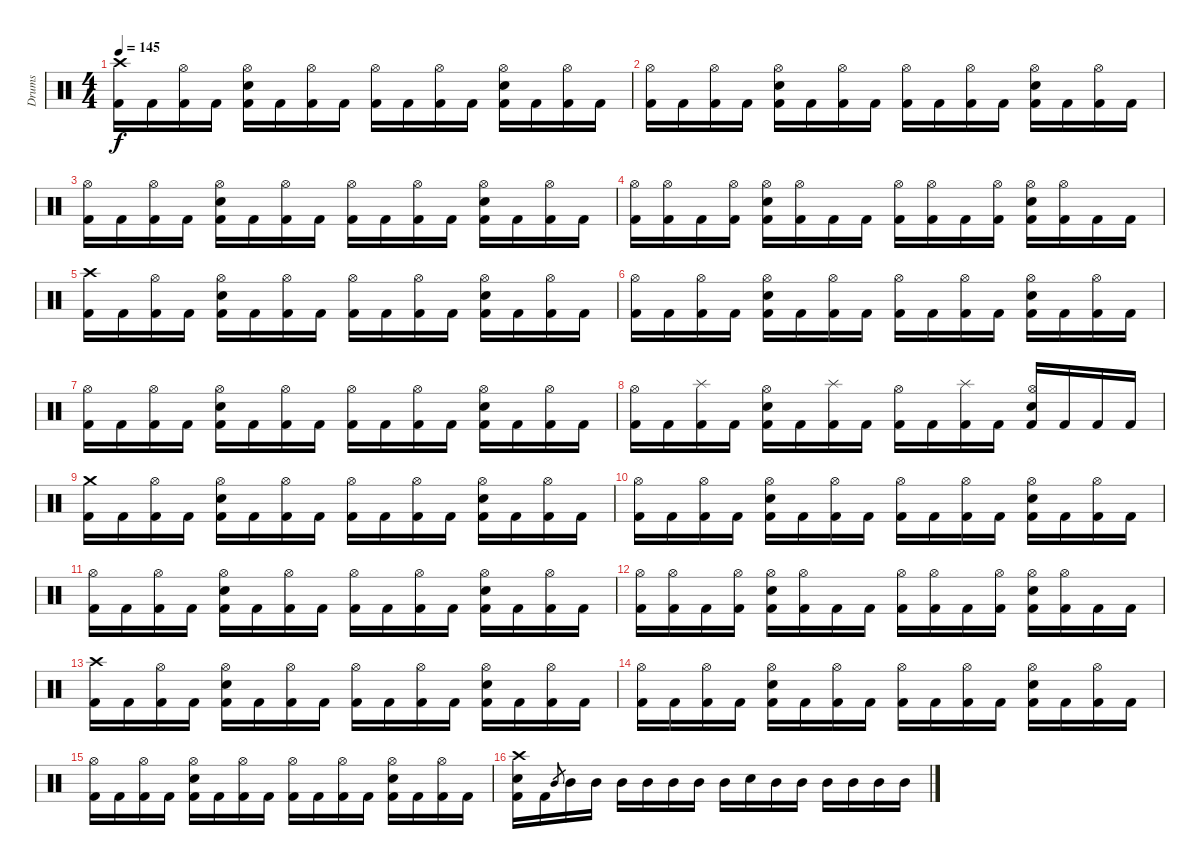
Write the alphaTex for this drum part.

\track ("Drums" "Drums") {instrument percussion}
\staff {score}
\articulation defaults
\ts (4 4)
\tempo 145
\clef neutral
\ks c
("Crash high (hit)" "Kick (hit) 2").16{dy f} "Kick (hit) 2".16 ("Hi-Hat (open)" "Kick (hit) 2").16 "Kick (hit) 2".16 ("Hi-Hat (open)" "Electric Snare (hit)" "Kick (hit) 2").16 "Kick (hit) 2".16 ("Hi-Hat (open)" "Kick (hit) 2").16 "Kick (hit) 2".16 ("Hi-Hat (open)" "Kick (hit) 2").16 "Kick (hit) 2".16 ("Hi-Hat (open)" "Kick (hit) 2").16 "Kick (hit) 2".16 ("Hi-Hat (open)" "Electric Snare (hit)" "Kick (hit) 2").16 "Kick (hit) 2".16 ("Hi-Hat (open)" "Kick (hit) 2").16 "Kick (hit) 2".16 |
("Hi-Hat (open)" "Kick (hit) 2").16 "Kick (hit) 2".16 ("Hi-Hat (open)" "Kick (hit) 2").16 "Kick (hit) 2".16 ("Hi-Hat (open)" "Electric Snare (hit)" "Kick (hit) 2").16 "Kick (hit) 2".16 ("Hi-Hat (open)" "Kick (hit) 2").16 "Kick (hit) 2".16 ("Hi-Hat (open)" "Kick (hit) 2").16 "Kick (hit) 2".16 ("Hi-Hat (open)" "Kick (hit) 2").16 "Kick (hit) 2".16 ("Hi-Hat (open)" "Electric Snare (hit)" "Kick (hit) 2").16 "Kick (hit) 2".16 ("Hi-Hat (open)" "Kick (hit) 2").16 "Kick (hit) 2".16 |
("Hi-Hat (open)" "Kick (hit) 2").16 "Kick (hit) 2".16 ("Hi-Hat (open)" "Kick (hit) 2").16 "Kick (hit) 2".16 ("Hi-Hat (open)" "Electric Snare (hit)" "Kick (hit) 2").16 "Kick (hit) 2".16 ("Hi-Hat (open)" "Kick (hit) 2").16 "Kick (hit) 2".16 ("Hi-Hat (open)" "Kick (hit) 2").16 "Kick (hit) 2".16 ("Hi-Hat (open)" "Kick (hit) 2").16 "Kick (hit) 2".16 ("Hi-Hat (open)" "Electric Snare (hit)" "Kick (hit) 2").16 "Kick (hit) 2".16 ("Hi-Hat (open)" "Kick (hit) 2").16 "Kick (hit) 2".16 |
("Hi-Hat (open)" "Kick (hit) 2").16 ("Hi-Hat (open)" "Kick (hit) 2").16 "Kick (hit) 2".16 ("Hi-Hat (open)" "Kick (hit) 2").16 ("Hi-Hat (open)" "Electric Snare (hit)" "Kick (hit) 2").16 ("Hi-Hat (open)" "Kick (hit) 2").16 "Kick (hit) 2".16 "Kick (hit) 2".16 ("Hi-Hat (open)" "Kick (hit) 2").16 ("Hi-Hat (open)" "Kick (hit) 2").16 "Kick (hit) 2".16 ("Hi-Hat (open)" "Kick (hit) 2").16 ("Hi-Hat (open)" "Electric Snare (hit)" "Kick (hit) 2").16 ("Hi-Hat (open)" "Kick (hit) 2").16 "Kick (hit) 2".16 "Kick (hit) 2".16 |
("Crash high (hit)" "Kick (hit) 2").16 "Kick (hit) 2".16 ("Hi-Hat (open)" "Kick (hit) 2").16 "Kick (hit) 2".16 ("Hi-Hat (open)" "Electric Snare (hit)" "Kick (hit) 2").16 "Kick (hit) 2".16 ("Hi-Hat (open)" "Kick (hit) 2").16 "Kick (hit) 2".16 ("Hi-Hat (open)" "Kick (hit) 2").16 "Kick (hit) 2".16 ("Hi-Hat (open)" "Kick (hit) 2").16 "Kick (hit) 2".16 ("Hi-Hat (open)" "Electric Snare (hit)" "Kick (hit) 2").16 "Kick (hit) 2".16 ("Hi-Hat (open)" "Kick (hit) 2").16 "Kick (hit) 2".16 |
("Hi-Hat (open)" "Kick (hit) 2").16 "Kick (hit) 2".16 ("Hi-Hat (open)" "Kick (hit) 2").16 "Kick (hit) 2".16 ("Hi-Hat (open)" "Electric Snare (hit)" "Kick (hit) 2").16 "Kick (hit) 2".16 ("Hi-Hat (open)" "Kick (hit) 2").16 "Kick (hit) 2".16 ("Hi-Hat (open)" "Kick (hit) 2").16 "Kick (hit) 2".16 ("Hi-Hat (open)" "Kick (hit) 2").16 "Kick (hit) 2".16 ("Hi-Hat (open)" "Electric Snare (hit)" "Kick (hit) 2").16 "Kick (hit) 2".16 ("Hi-Hat (open)" "Kick (hit) 2").16 "Kick (hit) 2".16 |
("Hi-Hat (open)" "Kick (hit) 2").16 "Kick (hit) 2".16 ("Hi-Hat (open)" "Kick (hit) 2").16 "Kick (hit) 2".16 ("Hi-Hat (open)" "Electric Snare (hit)" "Kick (hit) 2").16 "Kick (hit) 2".16 ("Hi-Hat (open)" "Kick (hit) 2").16 "Kick (hit) 2".16 ("Hi-Hat (open)" "Kick (hit) 2").16 "Kick (hit) 2".16 ("Hi-Hat (open)" "Kick (hit) 2").16 "Kick (hit) 2".16 ("Hi-Hat (open)" "Electric Snare (hit)" "Kick (hit) 2").16 "Kick (hit) 2".16 ("Hi-Hat (open)" "Kick (hit) 2").16 "Kick (hit) 2".16 |
("Hi-Hat (open)" "Kick (hit) 2").16 "Kick (hit) 2".16 ("Splash (hit)" "Kick (hit) 2").16 "Kick (hit) 2".16 ("Hi-Hat (open)" "Electric Snare (hit)" "Kick (hit) 2").16 "Kick (hit) 2".16 ("Splash (hit)" "Kick (hit) 2").16 "Kick (hit) 2".16 ("Hi-Hat (open)" "Kick (hit) 2").16 "Kick (hit) 2".16 ("Splash (hit)" "Kick (hit) 2").16 "Kick (hit) 2".16 ("Hi-Hat (open)" "Electric Snare (hit)" "Kick (hit) 2").16 "Kick (hit) 2".16 "Kick (hit) 2".16 "Kick (hit) 2".16 |
("Crash medium (hit)" "Kick (hit) 2").16 "Kick (hit) 2".16 ("Hi-Hat (open)" "Kick (hit) 2").16 "Kick (hit) 2".16 ("Hi-Hat (open)" "Electric Snare (hit)" "Kick (hit) 2").16 "Kick (hit) 2".16 ("Hi-Hat (open)" "Kick (hit) 2").16 "Kick (hit) 2".16 ("Hi-Hat (open)" "Kick (hit) 2").16 "Kick (hit) 2".16 ("Hi-Hat (open)" "Kick (hit) 2").16 "Kick (hit) 2".16 ("Hi-Hat (open)" "Electric Snare (hit)" "Kick (hit) 2").16 "Kick (hit) 2".16 ("Hi-Hat (open)" "Kick (hit) 2").16 "Kick (hit) 2".16 |
("Hi-Hat (open)" "Kick (hit) 2").16 "Kick (hit) 2".16 ("Hi-Hat (open)" "Kick (hit) 2").16 "Kick (hit) 2".16 ("Hi-Hat (open)" "Electric Snare (hit)" "Kick (hit) 2").16 "Kick (hit) 2".16 ("Hi-Hat (open)" "Kick (hit) 2").16 "Kick (hit) 2".16 ("Hi-Hat (open)" "Kick (hit) 2").16 "Kick (hit) 2".16 ("Hi-Hat (open)" "Kick (hit) 2").16 "Kick (hit) 2".16 ("Hi-Hat (open)" "Electric Snare (hit)" "Kick (hit) 2").16 "Kick (hit) 2".16 ("Hi-Hat (open)" "Kick (hit) 2").16 "Kick (hit) 2".16 |
("Hi-Hat (open)" "Kick (hit) 2").16 "Kick (hit) 2".16 ("Hi-Hat (open)" "Kick (hit) 2").16 "Kick (hit) 2".16 ("Hi-Hat (open)" "Electric Snare (hit)" "Kick (hit) 2").16 "Kick (hit) 2".16 ("Hi-Hat (open)" "Kick (hit) 2").16 "Kick (hit) 2".16 ("Hi-Hat (open)" "Kick (hit) 2").16 "Kick (hit) 2".16 ("Hi-Hat (open)" "Kick (hit) 2").16 "Kick (hit) 2".16 ("Hi-Hat (open)" "Electric Snare (hit)" "Kick (hit) 2").16 "Kick (hit) 2".16 ("Hi-Hat (open)" "Kick (hit) 2").16 "Kick (hit) 2".16 |
("Hi-Hat (open)" "Kick (hit) 2").16 ("Hi-Hat (open)" "Kick (hit) 2").16 "Kick (hit) 2".16 ("Hi-Hat (open)" "Kick (hit) 2").16 ("Hi-Hat (open)" "Electric Snare (hit)" "Kick (hit) 2").16 ("Hi-Hat (open)" "Kick (hit) 2").16 "Kick (hit) 2".16 "Kick (hit) 2".16 ("Hi-Hat (open)" "Kick (hit) 2").16 ("Hi-Hat (open)" "Kick (hit) 2").16 "Kick (hit) 2".16 ("Hi-Hat (open)" "Kick (hit) 2").16 ("Hi-Hat (open)" "Electric Snare (hit)" "Kick (hit) 2").16 ("Hi-Hat (open)" "Kick (hit) 2").16 "Kick (hit) 2".16 "Kick (hit) 2".16 |
("Crash high (hit)" "Kick (hit) 2").16 "Kick (hit) 2".16 ("Hi-Hat (open)" "Kick (hit) 2").16 "Kick (hit) 2".16 ("Hi-Hat (open)" "Electric Snare (hit)" "Kick (hit) 2").16 "Kick (hit) 2".16 ("Hi-Hat (open)" "Kick (hit) 2").16 "Kick (hit) 2".16 ("Hi-Hat (open)" "Kick (hit) 2").16 "Kick (hit) 2".16 ("Hi-Hat (open)" "Kick (hit) 2").16 "Kick (hit) 2".16 ("Hi-Hat (open)" "Electric Snare (hit)" "Kick (hit) 2").16 "Kick (hit) 2".16 ("Hi-Hat (open)" "Kick (hit) 2").16 "Kick (hit) 2".16 |
("Hi-Hat (open)" "Kick (hit) 2").16 "Kick (hit) 2".16 ("Hi-Hat (open)" "Kick (hit) 2").16 "Kick (hit) 2".16 ("Hi-Hat (open)" "Electric Snare (hit)" "Kick (hit) 2").16 "Kick (hit) 2".16 ("Hi-Hat (open)" "Kick (hit) 2").16 "Kick (hit) 2".16 ("Hi-Hat (open)" "Kick (hit) 2").16 "Kick (hit) 2".16 ("Hi-Hat (open)" "Kick (hit) 2").16 "Kick (hit) 2".16 ("Hi-Hat (open)" "Electric Snare (hit)" "Kick (hit) 2").16 "Kick (hit) 2".16 ("Hi-Hat (open)" "Kick (hit) 2").16 "Kick (hit) 2".16 |
("Hi-Hat (open)" "Kick (hit) 2").16 "Kick (hit) 2".16 ("Hi-Hat (open)" "Kick (hit) 2").16 "Kick (hit) 2".16 ("Hi-Hat (open)" "Electric Snare (hit)" "Kick (hit) 2").16 "Kick (hit) 2".16 ("Hi-Hat (open)" "Kick (hit) 2").16 "Kick (hit) 2".16 ("Hi-Hat (open)" "Kick (hit) 2").16 "Kick (hit) 2".16 ("Hi-Hat (open)" "Kick (hit) 2").16 "Kick (hit) 2".16 ("Hi-Hat (open)" "Electric Snare (hit)" "Kick (hit) 2").16 "Kick (hit) 2".16 ("Hi-Hat (open)" "Kick (hit) 2").16 "Kick (hit) 2".16 |
("Crash high (hit)" "Electric Snare (hit)" "Kick (hit) 2").16 "Kick (hit) 2".16 "Mid Tom (hit)".8{gr} "Mid Tom (hit)".16 "Mid Tom (hit)".16 "Mid Tom (hit)".16 "Mid Tom (hit)".16 "Mid Tom (hit)".16 "Mid Tom (hit)".16 "Mid Tom (hit)".16 "Electric Snare (hit)".16 "Mid Tom (hit)".16 "Mid Tom (hit)".16 "Mid Tom (hit)".16 "Mid Tom (hit)".16 "Mid Tom (hit)".16 "Mid Tom (hit)".16
